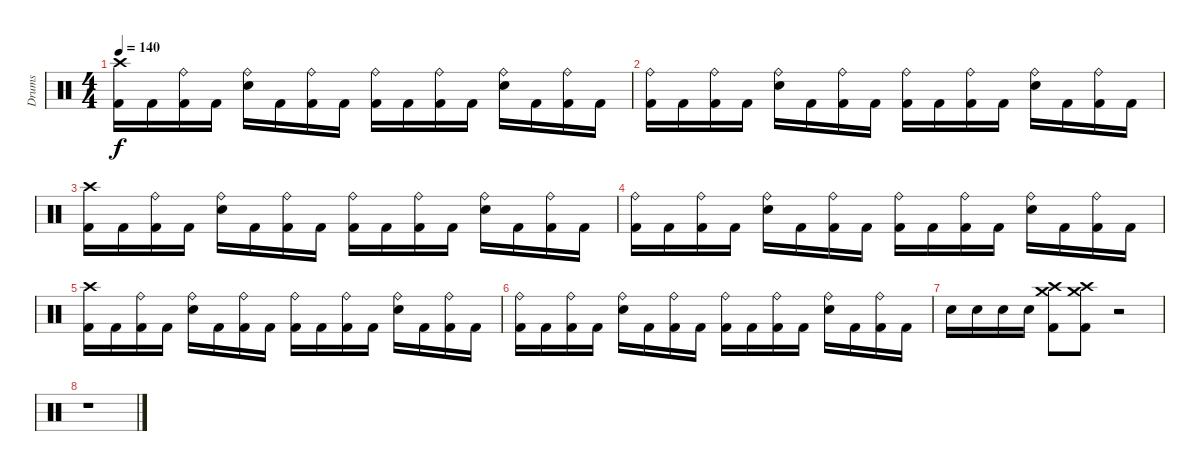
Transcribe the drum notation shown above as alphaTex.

\track ("Drums" "Drums") {instrument percussion}
\staff {score}
\articulation defaults
\ts (4 4)
\tempo 140
\clef neutral
\ks c
("Crash high (hit)" "Kick (hit) 2").16{dy f} "Kick (hit) 2".16 ("Ride (bell)" "Kick (hit) 2").16 "Kick (hit) 2".16 ("Ride (bell)" "Snare (hit) 2").16 "Kick (hit) 2".16 ("Ride (bell)" "Kick (hit) 2").16 "Kick (hit) 2".16 ("Ride (bell)" "Kick (hit) 2").16 "Kick (hit) 2".16 ("Ride (bell)" "Kick (hit) 2").16 "Kick (hit) 2".16 ("Ride (bell)" "Snare (hit) 2").16 "Kick (hit) 2".16 ("Ride (bell)" "Kick (hit) 2").16 "Kick (hit) 2".16 |
("Ride (bell)" "Kick (hit) 2").16 "Kick (hit) 2".16 ("Ride (bell)" "Kick (hit) 2").16 "Kick (hit) 2".16 ("Ride (bell)" "Snare (hit) 2").16 "Kick (hit) 2".16 ("Ride (bell)" "Kick (hit) 2").16 "Kick (hit) 2".16 ("Ride (bell)" "Kick (hit) 2").16 "Kick (hit) 2".16 ("Ride (bell)" "Kick (hit) 2").16 "Kick (hit) 2".16 ("Ride (bell)" "Snare (hit) 2").16 "Kick (hit) 2".16 ("Ride (bell)" "Kick (hit) 2").16 "Kick (hit) 2".16 |
("Crash high (hit)" "Kick (hit) 2").16 "Kick (hit) 2".16 ("Ride (bell)" "Kick (hit) 2").16 "Kick (hit) 2".16 ("Ride (bell)" "Snare (hit) 2").16 "Kick (hit) 2".16 ("Ride (bell)" "Kick (hit) 2").16 "Kick (hit) 2".16 ("Ride (bell)" "Kick (hit) 2").16 "Kick (hit) 2".16 ("Ride (bell)" "Kick (hit) 2").16 "Kick (hit) 2".16 ("Ride (bell)" "Snare (hit) 2").16 "Kick (hit) 2".16 ("Ride (bell)" "Kick (hit) 2").16 "Kick (hit) 2".16 |
("Ride (bell)" "Kick (hit) 2").16 "Kick (hit) 2".16 ("Ride (bell)" "Kick (hit) 2").16 "Kick (hit) 2".16 ("Ride (bell)" "Snare (hit) 2").16 "Kick (hit) 2".16 ("Ride (bell)" "Kick (hit) 2").16 "Kick (hit) 2".16 ("Ride (bell)" "Kick (hit) 2").16 "Kick (hit) 2".16 ("Ride (bell)" "Kick (hit) 2").16 "Kick (hit) 2".16 ("Ride (bell)" "Snare (hit) 2").16 "Kick (hit) 2".16 ("Ride (bell)" "Kick (hit) 2").16 "Kick (hit) 2".16 |
("Crash high (hit)" "Kick (hit) 2").16 "Kick (hit) 2".16 ("Ride (bell)" "Kick (hit) 2").16 "Kick (hit) 2".16 ("Ride (bell)" "Snare (hit) 2").16 "Kick (hit) 2".16 ("Ride (bell)" "Kick (hit) 2").16 "Kick (hit) 2".16 ("Ride (bell)" "Kick (hit) 2").16 "Kick (hit) 2".16 ("Ride (bell)" "Kick (hit) 2").16 "Kick (hit) 2".16 ("Ride (bell)" "Snare (hit) 2").16 "Kick (hit) 2".16 ("Ride (bell)" "Kick (hit) 2").16 "Kick (hit) 2".16 |
("Ride (bell)" "Kick (hit) 2").16 "Kick (hit) 2".16 ("Ride (bell)" "Kick (hit) 2").16 "Kick (hit) 2".16 ("Ride (bell)" "Snare (hit) 2").16 "Kick (hit) 2".16 ("Ride (bell)" "Kick (hit) 2").16 "Kick (hit) 2".16 ("Ride (bell)" "Kick (hit) 2").16 "Kick (hit) 2".16 ("Ride (bell)" "Kick (hit) 2").16 "Kick (hit) 2".16 ("Ride (bell)" "Snare (hit) 2").16 "Kick (hit) 2".16 ("Ride (bell)" "Kick (hit) 2").16 "Kick (hit) 2".16 |
"Snare (hit) 2".16 "Snare (hit) 2".16 "Snare (hit) 2".16 "Snare (hit) 2".16 ("Crash medium (hit)" "Crash high (hit)" "Kick (hit) 2").8 ("Crash medium (hit)" "Crash high (hit)" "Kick (hit) 2").8 r.2 |
r.1
